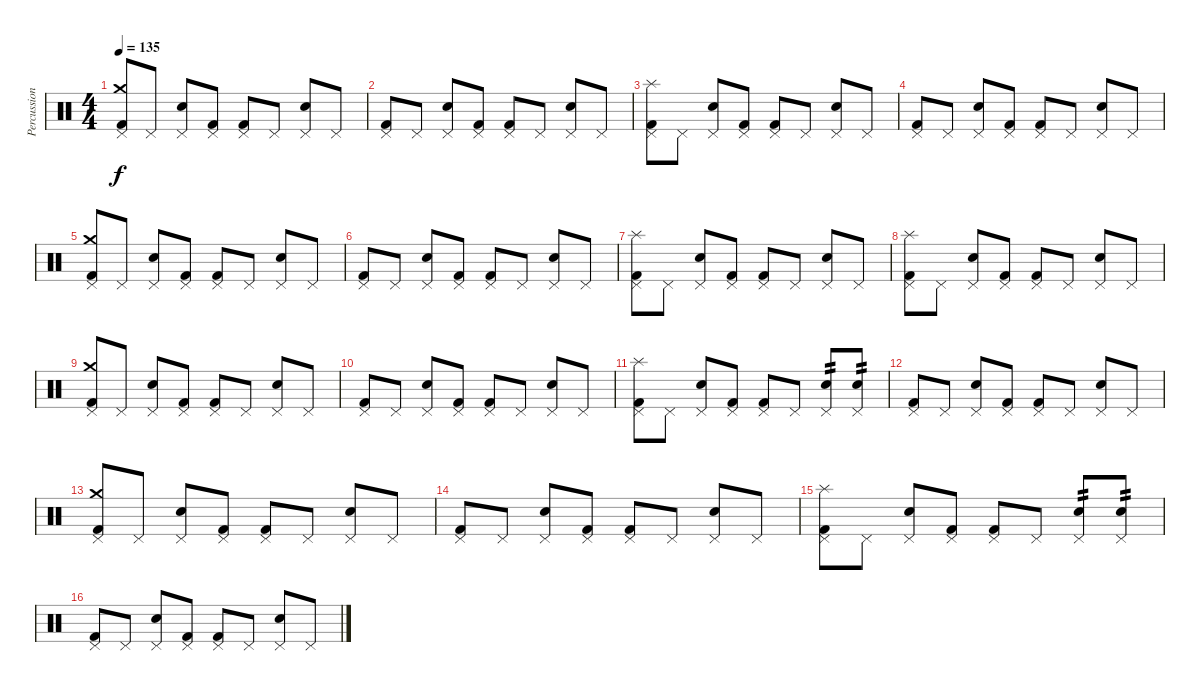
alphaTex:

\track ("Percussion" "Percussion") {instrument percussion}
\staff {score}
\articulation defaults
\ts (4 4)
\tempo 135
\clef neutral
\ks c
("Kick (hit) 2" "Crash medium (hit)" "Pedal Hi-Hat (hit)").8{dy f} "Pedal Hi-Hat (hit)".8 ("Snare (hit) 2" "Pedal Hi-Hat (hit)").8 ("Kick (hit) 2" "Pedal Hi-Hat (hit)").8 ("Kick (hit) 2" "Pedal Hi-Hat (hit)").8 "Pedal Hi-Hat (hit)".8 ("Snare (hit) 2" "Pedal Hi-Hat (hit)").8 "Pedal Hi-Hat (hit)".8 |
("Kick (hit) 2" "Pedal Hi-Hat (hit)").8 "Pedal Hi-Hat (hit)".8 ("Snare (hit) 2" "Pedal Hi-Hat (hit)").8 ("Kick (hit) 2" "Pedal Hi-Hat (hit)").8 ("Kick (hit) 2" "Pedal Hi-Hat (hit)").8 "Pedal Hi-Hat (hit)".8 ("Snare (hit) 2" "Pedal Hi-Hat (hit)").8 "Pedal Hi-Hat (hit)".8 |
("Kick (hit) 2" "Splash (hit)" "Pedal Hi-Hat (hit)").8 "Pedal Hi-Hat (hit)".8 ("Snare (hit) 2" "Pedal Hi-Hat (hit)").8 ("Kick (hit) 2" "Pedal Hi-Hat (hit)").8 ("Kick (hit) 2" "Pedal Hi-Hat (hit)").8 "Pedal Hi-Hat (hit)".8 ("Snare (hit) 2" "Pedal Hi-Hat (hit)").8 "Pedal Hi-Hat (hit)".8 |
("Kick (hit) 2" "Pedal Hi-Hat (hit)").8 "Pedal Hi-Hat (hit)".8 ("Snare (hit) 2" "Pedal Hi-Hat (hit)").8 ("Kick (hit) 2" "Pedal Hi-Hat (hit)").8 ("Kick (hit) 2" "Pedal Hi-Hat (hit)").8 "Pedal Hi-Hat (hit)".8 ("Snare (hit) 2" "Pedal Hi-Hat (hit)").8 "Pedal Hi-Hat (hit)".8 |
("Kick (hit) 2" "Crash medium (hit)" "Pedal Hi-Hat (hit)").8 "Pedal Hi-Hat (hit)".8 ("Snare (hit) 2" "Pedal Hi-Hat (hit)").8 ("Kick (hit) 2" "Pedal Hi-Hat (hit)").8 ("Kick (hit) 2" "Pedal Hi-Hat (hit)").8 "Pedal Hi-Hat (hit)".8 ("Snare (hit) 2" "Pedal Hi-Hat (hit)").8 "Pedal Hi-Hat (hit)".8 |
("Kick (hit) 2" "Pedal Hi-Hat (hit)").8 "Pedal Hi-Hat (hit)".8 ("Snare (hit) 2" "Pedal Hi-Hat (hit)").8 ("Kick (hit) 2" "Pedal Hi-Hat (hit)").8 ("Kick (hit) 2" "Pedal Hi-Hat (hit)").8 "Pedal Hi-Hat (hit)".8 ("Snare (hit) 2" "Pedal Hi-Hat (hit)").8 "Pedal Hi-Hat (hit)".8 |
("Kick (hit) 2" "Splash (hit)" "Pedal Hi-Hat (hit)").8 "Pedal Hi-Hat (hit)".8 ("Snare (hit) 2" "Pedal Hi-Hat (hit)").8 ("Kick (hit) 2" "Pedal Hi-Hat (hit)").8 ("Kick (hit) 2" "Pedal Hi-Hat (hit)").8 "Pedal Hi-Hat (hit)".8 ("Snare (hit) 2" "Pedal Hi-Hat (hit)").8 "Pedal Hi-Hat (hit)".8 |
("Kick (hit) 2" "Splash (hit)" "Pedal Hi-Hat (hit)").8 "Pedal Hi-Hat (hit)".8 ("Snare (hit) 2" "Pedal Hi-Hat (hit)").8 ("Kick (hit) 2" "Pedal Hi-Hat (hit)").8 ("Kick (hit) 2" "Pedal Hi-Hat (hit)").8 "Pedal Hi-Hat (hit)".8 ("Snare (hit) 2" "Pedal Hi-Hat (hit)").8 "Pedal Hi-Hat (hit)".8 |
("Kick (hit) 2" "Crash medium (hit)" "Pedal Hi-Hat (hit)").8 "Pedal Hi-Hat (hit)".8 ("Snare (hit) 2" "Pedal Hi-Hat (hit)").8 ("Kick (hit) 2" "Pedal Hi-Hat (hit)").8 ("Kick (hit) 2" "Pedal Hi-Hat (hit)").8 "Pedal Hi-Hat (hit)".8 ("Snare (hit) 2" "Pedal Hi-Hat (hit)").8 "Pedal Hi-Hat (hit)".8 |
("Kick (hit) 2" "Pedal Hi-Hat (hit)").8 "Pedal Hi-Hat (hit)".8 ("Snare (hit) 2" "Pedal Hi-Hat (hit)").8 ("Kick (hit) 2" "Pedal Hi-Hat (hit)").8 ("Kick (hit) 2" "Pedal Hi-Hat (hit)").8 "Pedal Hi-Hat (hit)".8 ("Snare (hit) 2" "Pedal Hi-Hat (hit)").8 "Pedal Hi-Hat (hit)".8 |
("Kick (hit) 2" "Splash (hit)" "Pedal Hi-Hat (hit)").8 "Pedal Hi-Hat (hit)".8 ("Snare (hit) 2" "Pedal Hi-Hat (hit)").8 ("Kick (hit) 2" "Pedal Hi-Hat (hit)").8 ("Kick (hit) 2" "Pedal Hi-Hat (hit)").8 "Pedal Hi-Hat (hit)".8 ("Snare (hit) 2" "Pedal Hi-Hat (hit)").8{tp 2} ("Snare (hit) 2" "Pedal Hi-Hat (hit)").8{tp 2} |
("Kick (hit) 2" "Pedal Hi-Hat (hit)").8 "Pedal Hi-Hat (hit)".8 ("Snare (hit) 2" "Pedal Hi-Hat (hit)").8 ("Kick (hit) 2" "Pedal Hi-Hat (hit)").8 ("Kick (hit) 2" "Pedal Hi-Hat (hit)").8 "Pedal Hi-Hat (hit)".8 ("Snare (hit) 2" "Pedal Hi-Hat (hit)").8 "Pedal Hi-Hat (hit)".8 |
("Kick (hit) 2" "Crash medium (hit)" "Pedal Hi-Hat (hit)").8 "Pedal Hi-Hat (hit)".8 ("Snare (hit) 2" "Pedal Hi-Hat (hit)").8 ("Kick (hit) 2" "Pedal Hi-Hat (hit)").8 ("Kick (hit) 2" "Pedal Hi-Hat (hit)").8 "Pedal Hi-Hat (hit)".8 ("Snare (hit) 2" "Pedal Hi-Hat (hit)").8 "Pedal Hi-Hat (hit)".8 |
("Kick (hit) 2" "Pedal Hi-Hat (hit)").8 "Pedal Hi-Hat (hit)".8 ("Snare (hit) 2" "Pedal Hi-Hat (hit)").8 ("Kick (hit) 2" "Pedal Hi-Hat (hit)").8 ("Kick (hit) 2" "Pedal Hi-Hat (hit)").8 "Pedal Hi-Hat (hit)".8 ("Snare (hit) 2" "Pedal Hi-Hat (hit)").8 "Pedal Hi-Hat (hit)".8 |
("Kick (hit) 2" "Splash (hit)" "Pedal Hi-Hat (hit)").8 "Pedal Hi-Hat (hit)".8 ("Snare (hit) 2" "Pedal Hi-Hat (hit)").8 ("Kick (hit) 2" "Pedal Hi-Hat (hit)").8 ("Kick (hit) 2" "Pedal Hi-Hat (hit)").8 "Pedal Hi-Hat (hit)".8 ("Snare (hit) 2" "Pedal Hi-Hat (hit)").8{tp 2} ("Snare (hit) 2" "Pedal Hi-Hat (hit)").8{tp 2} |
("Kick (hit) 2" "Pedal Hi-Hat (hit)").8 "Pedal Hi-Hat (hit)".8 ("Snare (hit) 2" "Pedal Hi-Hat (hit)").8 ("Kick (hit) 2" "Pedal Hi-Hat (hit)").8 ("Kick (hit) 2" "Pedal Hi-Hat (hit)").8 "Pedal Hi-Hat (hit)".8 ("Snare (hit) 2" "Pedal Hi-Hat (hit)").8 "Pedal Hi-Hat (hit)".8
